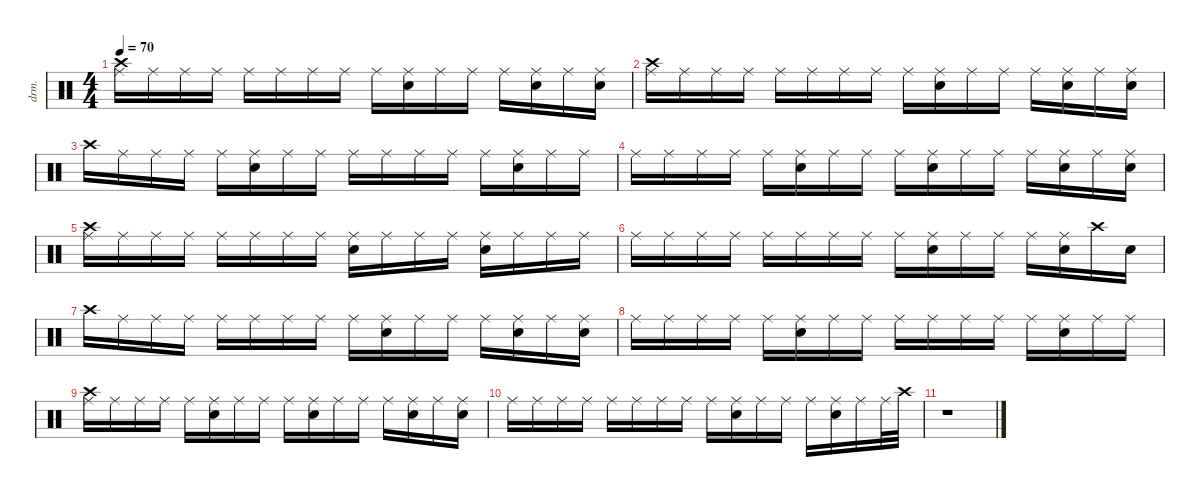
\defaultSystemsLayout 4
\hideDynamics
\bracketExtendMode groupsimilarinstruments
\otherSystemsTrackNameOrientation horizontal
\track ("Drums" "drm.") {defaultSystemsLayout 4 instrument percussion}
\staff {score}
\articulation defaults
\ts (4 4)
\tempo 70
\clef neutral
\ks c
("Crash high (hit)" "Ride (middle)").16{dy f beam Down} "Ride (middle)".16{dy mf beam Down} "Ride (middle)".16{dy mp beam Down} "Ride (middle)".16{dy ff beam Down} "Ride (middle)".16{dy mp beam Down} "Ride (middle)".16{beam Down} "Ride (middle)".16{dy f beam Down} "Ride (middle)".16{dy mp beam Down} "Ride (middle)".16{beam Down} ("Snare (hit) 2" "Ride (middle)").16{dy fff beam Down} "Ride (middle)".16{dy mp beam Down} "Ride (middle)".16{beam Down} "Ride (middle)".16{dy f beam Down} ("Snare (hit) 2" "Ride (middle)").16{dy fff beam Down} "Ride (middle)".16{dy mf beam Down} ("Snare (hit) 2" "Ride (middle)").16{dy fff beam Down} |
("Crash high (hit)" "Ride (middle)").16{dy f beam Down} "Ride (middle)".16{dy mp beam Down} "Ride (middle)".16{dy mf beam Down} "Ride (middle)".16{dy ff beam Down} "Ride (middle)".16{dy mp beam Down} "Ride (middle)".16{beam Down} "Ride (middle)".16{dy f beam Down} "Ride (middle)".16{dy mp beam Down} "Ride (middle)".16{beam Down} ("Snare (hit) 2" "Ride (middle)").16{dy fff beam Down} "Ride (middle)".16{dy mp beam Down} "Ride (middle)".16{dy mf beam Down} "Ride (middle)".16{dy f beam Down} ("Snare (hit) 2" "Ride (middle)").16{dy fff beam Down} "Ride (middle)".16{dy ff beam Down} ("Snare (hit) 2" "Ride (middle)").16{dy fff beam Down} |
"Crash high (hit)".16{dy f beam Down} "Ride (middle)".16{dy mp beam Down} "Ride (middle)".16{beam Down} "Ride (middle)".16{dy f beam Down} "Ride (middle)".16{dy mp beam Down} ("Snare (hit) 2" "Ride (middle)").16{dy fff beam Down} "Ride (middle)".16{dy ff beam Down} "Ride (middle)".16{dy mf beam Down} "Ride (middle)".16{beam Down} "Ride (middle)".16{dy f beam Down} "Ride (middle)".16{dy mp beam Down} "Ride (middle)".16{dy f beam Down} "Ride (middle)".16{beam Down} ("Snare (hit) 2" "Ride (middle)").16{dy fff beam Down} "Ride (middle)".16{dy f beam Down} "Ride (middle)".16{beam Down} |
"Ride (middle)".16{beam Down} "Ride (middle)".16{beam Down} "Ride (middle)".16{beam Down} "Ride (middle)".16{beam Down} "Ride (middle)".16{beam Down} ("Snare (hit) 2" "Ride (middle)").16{dy fff beam Down} "Ride (middle)".16{dy f beam Down} "Ride (middle)".16{beam Down} "Ride (middle)".16{dy mf beam Down} ("Snare (hit) 2" "Ride (middle)").16{dy fff beam Down} "Ride (middle)".16{dy mf beam Down} "Ride (middle)".16{dy ff beam Down} "Ride (middle)".16{dy mf beam Down} ("Snare (hit) 2" "Ride (middle)").16{dy fff beam Down} "Ride (middle)".16{dy ff beam Down} ("Snare (hit) 2" "Ride (middle)").16{dy fff beam Down} |
("Crash high (hit)" "Ride (middle)").16{dy f beam Down} "Ride (middle)".16{beam Down} "Ride (middle)".16{beam Down} "Ride (middle)".16{beam Down} "Ride (middle)".16{beam Down} "Ride (middle)".16{dy ff beam Down} "Ride (middle)".16{dy mp beam Down} "Ride (middle)".16{dy f beam Down} ("Snare (hit) 2" "Ride (middle)").16{dy fff beam Down} "Ride (middle)".16{dy f beam Down} "Ride (middle)".16{dy ff beam Down} "Ride (middle)".16{dy f beam Down} ("Snare (hit) 2" "Ride (middle)").16{dy fff beam Down} "Ride (middle)".16{dy f beam Down} "Ride (middle)".16{dy ff beam Down} "Ride (middle)".16{dy f beam Down} |
"Ride (middle)".16{beam Down} "Ride (middle)".16{dy mf beam Down} "Ride (middle)".16{dy mp beam Down} "Ride (middle)".16{dy ff beam Down} "Ride (middle)".16{dy mp beam Down} "Ride (middle)".16{beam Down} "Ride (middle)".16{dy f beam Down} "Ride (middle)".16{dy mp beam Down} "Ride (middle)".16{beam Down} ("Snare (hit) 2" "Ride (middle)").16{dy fff beam Down} "Ride (middle)".16{dy mp beam Down} "Ride (middle)".16{beam Down} "Ride (middle)".16{dy f beam Down} ("Snare (hit) 2" "Ride (middle)").16{dy fff beam Down} "Crash high (hit)".16{dy mf beam Down} "Snare (hit) 2".16{dy fff beam Down} |
"Crash high (hit)".16{dy f beam Down} "Ride (middle)".16{dy mp beam Down} "Ride (middle)".16{dy mf beam Down} "Ride (middle)".16{dy ff beam Down} "Ride (middle)".16{dy mp beam Down} "Ride (middle)".16{beam Down} "Ride (middle)".16{dy f beam Down} "Ride (middle)".16{dy mp beam Down} "Ride (middle)".16{beam Down} ("Snare (hit) 2" "Ride (middle)").16{dy fff beam Down} "Ride (middle)".16{dy mp beam Down} "Ride (middle)".16{dy mf beam Down} "Ride (middle)".16{dy f beam Down} ("Snare (hit) 2" "Ride (middle)").16{dy fff beam Down} "Ride (middle)".16{dy ff beam Down} ("Snare (hit) 2" "Ride (middle)").16{dy fff beam Down} |
"Ride (middle)".16{dy f beam Down} "Ride (middle)".16{dy mp beam Down} "Ride (middle)".16{beam Down} "Ride (middle)".16{dy f beam Down} "Ride (middle)".16{dy mp beam Down} ("Snare (hit) 2" "Ride (middle)").16{dy fff beam Down} "Ride (middle)".16{dy ff beam Down} "Ride (middle)".16{dy mf beam Down} "Ride (middle)".16{beam Down} "Ride (middle)".16{dy f beam Down} "Ride (middle)".16{dy mp beam Down} "Ride (middle)".16{dy f beam Down} "Ride (middle)".16{beam Down} ("Snare (hit) 2" "Ride (middle)").16{dy fff beam Down} "Ride (middle)".16{dy f beam Down} "Ride (middle)".16{beam Down} |
("Crash high (hit)" "Ride (middle)").16{beam Down} "Ride (middle)".16{beam Down} "Ride (middle)".16{beam Down} "Ride (middle)".16{beam Down} "Ride (middle)".16{beam Down} ("Snare (hit) 2" "Ride (middle)").16{dy fff beam Down} "Ride (middle)".16{dy f beam Down} "Ride (middle)".16{beam Down} "Ride (middle)".16{dy mf beam Down} ("Snare (hit) 2" "Ride (middle)").16{dy fff beam Down} "Ride (middle)".16{dy mf beam Down} "Ride (middle)".16{dy ff beam Down} "Ride (middle)".16{dy mf beam Down} ("Snare (hit) 2" "Ride (middle)").16{dy fff beam Down} "Ride (middle)".16{dy ff beam Down} ("Snare (hit) 2" "Ride (middle)").16{dy fff beam Down} |
"Ride (middle)".16{dy f beam Down} "Ride (middle)".16{beam Down} "Ride (middle)".16{beam Down} "Ride (middle)".16{beam Down} "Ride (middle)".16{beam Down} "Ride (middle)".16{beam Down} "Ride (middle)".16{dy mp beam Down} "Ride (middle)".16{beam Down} "Ride (middle)".16{dy f beam Down} ("Snare (hit) 2" "Ride (middle)").16{dy fff beam Down} "Ride (middle)".16{dy f beam Down} "Ride (middle)".16{dy ff beam Down} "Ride (middle)".16{dy f beam Down} ("Snare (hit) 2" "Ride (middle)").16{dy fff beam Down} "Ride (middle)".16{dy f beam Down} "Ride (middle)".32{beam Down} "Crash high (hit)".32{beam Down} |
r.1{beam Down}
